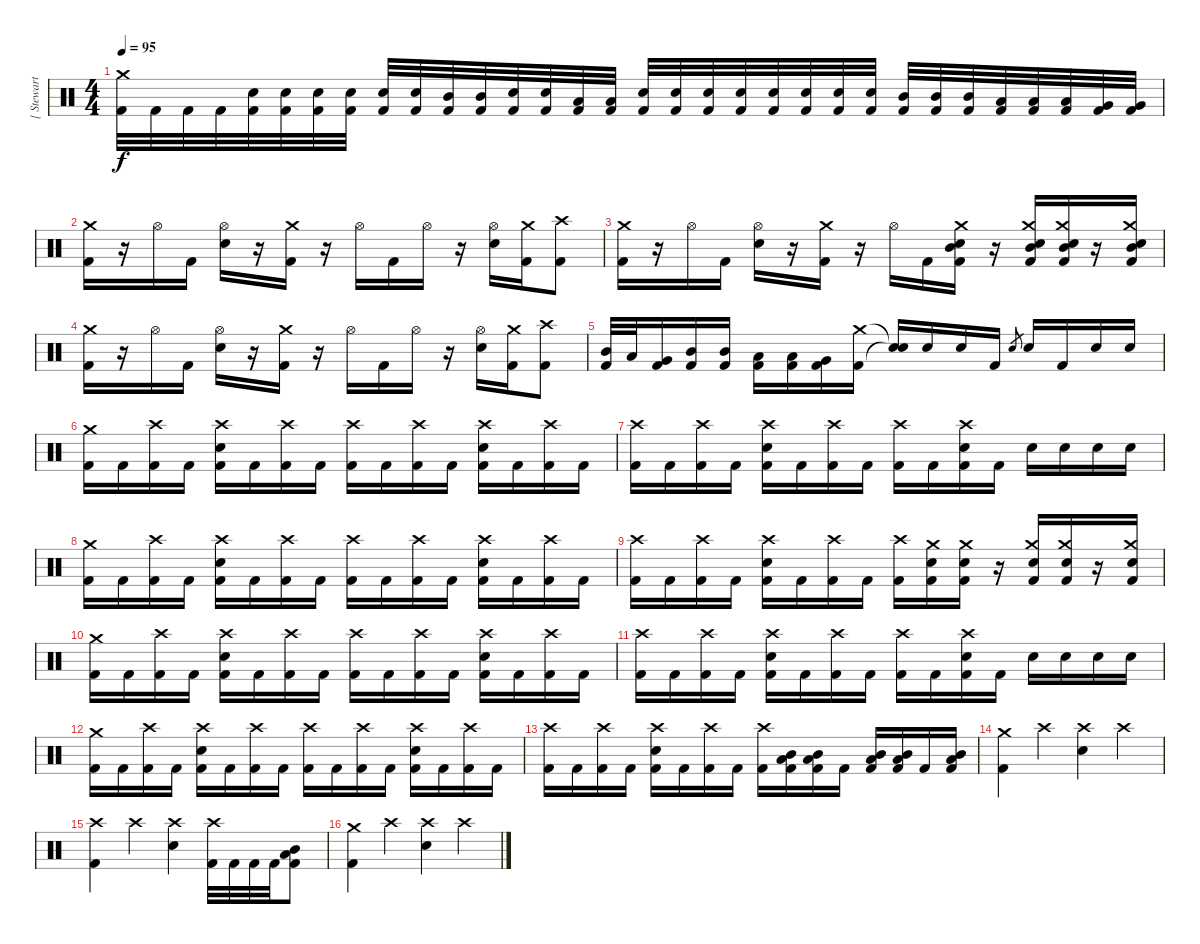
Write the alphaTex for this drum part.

\track ("[ Stewart ] " "[ Stewart ") {instrument percussion}
\staff {score}
\articulation defaults
\ts (4 4)
\tempo 95
\clef neutral
\ks c
("Kick (hit) 2" "Crash medium (hit)").32{dy f} "Kick (hit) 2".32 "Kick (hit) 2".32 "Kick (hit) 2".32 ("Electric Snare (hit)" "Kick (hit) 2").32 ("Electric Snare (hit)" "Kick (hit) 2").32 ("Electric Snare (hit)" "Kick (hit) 2").32 ("Electric Snare (hit)" "Kick (hit) 2").32 ("Electric Snare (hit)" "Kick (hit) 2").32 ("Electric Snare (hit)" "Kick (hit) 2").32 ("Mid Tom (hit)" "Kick (hit) 2").32 ("Mid Tom (hit)" "Kick (hit) 2").32 ("Electric Snare (hit)" "Kick (hit) 2").32 ("Electric Snare (hit)" "Kick (hit) 2").32 ("Low Tom (hit)" "Kick (hit) 2").32 ("Low Tom (hit)" "Kick (hit) 2").32 ("Electric Snare (hit)" "Kick (hit) 2").32 ("Electric Snare (hit)" "Kick (hit) 2").32 ("Electric Snare (hit)" "Kick (hit) 2").32 ("Electric Snare (hit)" "Kick (hit) 2").32 ("Electric Snare (hit)" "Kick (hit) 2").32 ("Electric Snare (hit)" "Kick (hit) 2").32 ("Electric Snare (hit)" "Kick (hit) 2").32 ("Electric Snare (hit)" "Kick (hit) 2").32 ("Mid Tom (hit)" "Kick (hit) 2").32 ("Mid Tom (hit)" "Kick (hit) 2").32 ("Mid Tom (hit)" "Kick (hit) 2").32 ("Low Tom (hit)" "Kick (hit) 2").32 ("Low Tom (hit)" "Kick (hit) 2").32 ("Low Tom (hit)" "Kick (hit) 2").32 ("Very Low Tom (hit)" "Kick (hit) 2").32 ("Very Low Tom (hit)" "Kick (hit) 2").32 |
("Kick (hit) 2" "Crash medium (hit)").16 r.16 "Hi-Hat (open)".16 "Kick (hit) 2".16 ("Electric Snare (hit)" "Hi-Hat (open)").16 r.16 ("Kick (hit) 2" "Crash medium (hit)").16 r.16 "Hi-Hat (open)".16 "Kick (hit) 2".16 "Hi-Hat (open)".16 r.16 ("Electric Snare (hit)" "Hi-Hat (open)").16 ("Kick (hit) 2" "Crash medium (hit)").16 ("Kick (hit) 2" "Crash high (hit)").8 |
("Kick (hit) 2" "Crash medium (hit)").16 r.16 "Hi-Hat (open)".16 "Kick (hit) 2".16 ("Electric Snare (hit)" "Hi-Hat (open)").16 r.16 ("Kick (hit) 2" "Crash medium (hit)").16 r.16 "Hi-Hat (open)".16 "Kick (hit) 2".16 ("Electric Snare (hit)" "Mid Tom (hit)" "Kick (hit) 2" "Crash medium (hit)").16 r.16 ("Electric Snare (hit)" "Mid Tom (hit)" "Kick (hit) 2" "Crash medium (hit)").16 ("Electric Snare (hit)" "Mid Tom (hit)" "Kick (hit) 2" "Crash medium (hit)").16 r.16 ("Electric Snare (hit)" "Mid Tom (hit)" "Kick (hit) 2" "Crash medium (hit)").16 |
("Kick (hit) 2" "Crash medium (hit)").16 r.16 "Hi-Hat (open)".16 "Kick (hit) 2".16 ("Electric Snare (hit)" "Hi-Hat (open)").16 r.16 ("Kick (hit) 2" "Crash medium (hit)").16 r.16 "Hi-Hat (open)".16 "Kick (hit) 2".16 "Hi-Hat (open)".16 r.16 ("Electric Snare (hit)" "Hi-Hat (open)").16 ("Kick (hit) 2" "Crash medium (hit)").16 ("Kick (hit) 2" "Crash high (hit)").8 |
("Mid Tom (hit)" "Kick (hit) 2").32 "Low Tom (hit)".32 ("Very Low Tom (hit)" "Kick (hit) 2").16 ("Mid Tom (hit)" "Kick (hit) 2").16 ("Mid Tom (hit)" "Kick (hit) 2").16 ("Low Tom (hit)" "Kick (hit) 2").16 ("Low Tom (hit)" "Kick (hit) 2").16 ("Very Low Tom (hit)" "Kick (hit) 2").16 ("Kick (hit) 2" "Crash medium (hit)").16 ("Snare (hit)"{t} "Snare (hit)"{t}).16 "Electric Snare (hit)".16 "Electric Snare (hit)".16 "Kick (hit) 2".16 "Electric Snare (hit)".8{gr} "Electric Snare (hit)".16 "Kick (hit) 2".16 "Electric Snare (hit)".16 "Electric Snare (hit)".16 |
("Kick (hit) 2" "Crash medium (hit)").16 "Kick (hit) 2".16 ("Kick (hit) 2" "Crash high (hit)").16 "Kick (hit) 2".16 ("Kick (hit) 2" "Electric Snare (hit)" "Crash high (hit)").16 "Kick (hit) 2".16 ("Kick (hit) 2" "Crash high (hit)").16 "Kick (hit) 2".16 ("Kick (hit) 2" "Crash high (hit)").16 "Kick (hit) 2".16 ("Kick (hit) 2" "Crash high (hit)").16 "Kick (hit) 2".16 ("Kick (hit) 2" "Electric Snare (hit)" "Crash high (hit)").16 "Kick (hit) 2".16 ("Kick (hit) 2" "Crash high (hit)").16 "Kick (hit) 2".16 |
("Kick (hit) 2" "Crash high (hit)").16 "Kick (hit) 2".16 ("Kick (hit) 2" "Crash high (hit)").16 "Kick (hit) 2".16 ("Kick (hit) 2" "Electric Snare (hit)" "Crash high (hit)").16 "Kick (hit) 2".16 ("Kick (hit) 2" "Crash high (hit)").16 "Kick (hit) 2".16 ("Kick (hit) 2" "Crash high (hit)").16 "Kick (hit) 2".16 ("Kick (hit) 2" "Electric Snare (hit)" "Crash high (hit)").16 "Kick (hit) 2".16 "Electric Snare (hit)".16 "Electric Snare (hit)".16 "Electric Snare (hit)".16 "Electric Snare (hit)".16 |
("Kick (hit) 2" "Crash medium (hit)").16 "Kick (hit) 2".16 ("Kick (hit) 2" "Crash high (hit)").16 "Kick (hit) 2".16 ("Kick (hit) 2" "Electric Snare (hit)" "Crash high (hit)").16 "Kick (hit) 2".16 ("Kick (hit) 2" "Crash high (hit)").16 "Kick (hit) 2".16 ("Kick (hit) 2" "Crash high (hit)").16 "Kick (hit) 2".16 ("Kick (hit) 2" "Crash high (hit)").16 "Kick (hit) 2".16 ("Kick (hit) 2" "Electric Snare (hit)" "Crash high (hit)").16 "Kick (hit) 2".16 ("Kick (hit) 2" "Crash high (hit)").16 "Kick (hit) 2".16 |
("Kick (hit) 2" "Crash high (hit)").16 "Kick (hit) 2".16 ("Kick (hit) 2" "Crash high (hit)").16 "Kick (hit) 2".16 ("Kick (hit) 2" "Electric Snare (hit)" "Crash high (hit)").16 "Kick (hit) 2".16 ("Kick (hit) 2" "Crash high (hit)").16 "Kick (hit) 2".16 ("Kick (hit) 2" "Crash high (hit)").16 ("Kick (hit) 2" "Electric Snare (hit)" "Crash medium (hit)").16 ("Kick (hit) 2" "Electric Snare (hit)" "Crash medium (hit)").16 r.16 ("Kick (hit) 2" "Electric Snare (hit)" "Crash medium (hit)").16 ("Kick (hit) 2" "Electric Snare (hit)" "Crash medium (hit)").16 r.16 ("Kick (hit) 2" "Electric Snare (hit)" "Crash medium (hit)").16 |
("Kick (hit) 2" "Crash medium (hit)").16 "Kick (hit) 2".16 ("Kick (hit) 2" "Crash high (hit)").16 "Kick (hit) 2".16 ("Kick (hit) 2" "Electric Snare (hit)" "Crash high (hit)").16 "Kick (hit) 2".16 ("Kick (hit) 2" "Crash high (hit)").16 "Kick (hit) 2".16 ("Kick (hit) 2" "Crash high (hit)").16 "Kick (hit) 2".16 ("Kick (hit) 2" "Crash high (hit)").16 "Kick (hit) 2".16 ("Kick (hit) 2" "Electric Snare (hit)" "Crash high (hit)").16 "Kick (hit) 2".16 ("Kick (hit) 2" "Crash high (hit)").16 "Kick (hit) 2".16 |
("Kick (hit) 2" "Crash high (hit)").16 "Kick (hit) 2".16 ("Kick (hit) 2" "Crash high (hit)").16 "Kick (hit) 2".16 ("Kick (hit) 2" "Electric Snare (hit)" "Crash high (hit)").16 "Kick (hit) 2".16 ("Kick (hit) 2" "Crash high (hit)").16 "Kick (hit) 2".16 ("Kick (hit) 2" "Crash high (hit)").16 "Kick (hit) 2".16 ("Kick (hit) 2" "Electric Snare (hit)" "Crash high (hit)").16 "Kick (hit) 2".16 "Electric Snare (hit)".16 "Electric Snare (hit)".16 "Electric Snare (hit)".16 "Electric Snare (hit)".16 |
("Kick (hit) 2" "Crash medium (hit)").16 "Kick (hit) 2".16 ("Kick (hit) 2" "Crash high (hit)").16 "Kick (hit) 2".16 ("Kick (hit) 2" "Electric Snare (hit)" "Crash high (hit)").16 "Kick (hit) 2".16 ("Kick (hit) 2" "Crash high (hit)").16 "Kick (hit) 2".16 ("Kick (hit) 2" "Crash high (hit)").16 "Kick (hit) 2".16 ("Kick (hit) 2" "Crash high (hit)").16 "Kick (hit) 2".16 ("Kick (hit) 2" "Electric Snare (hit)" "Crash high (hit)").16 "Kick (hit) 2".16 ("Kick (hit) 2" "Crash high (hit)").16 "Kick (hit) 2".16 |
("Kick (hit) 2" "Crash high (hit)").16 "Kick (hit) 2".16 ("Kick (hit) 2" "Crash high (hit)").16 "Kick (hit) 2".16 ("Kick (hit) 2" "Electric Snare (hit)" "Crash high (hit)").16 "Kick (hit) 2".16 ("Kick (hit) 2" "Crash high (hit)").16 "Kick (hit) 2".16 ("Kick (hit) 2" "Crash high (hit)").16 ("Kick (hit) 2" "Mid Tom (hit)" "Low Tom (hit)").16 ("Kick (hit) 2" "Mid Tom (hit)" "Low Tom (hit)").16 "Kick (hit) 2".16 ("Kick (hit) 2" "Mid Tom (hit)" "Low Tom (hit)").16 ("Kick (hit) 2" "Mid Tom (hit)" "Low Tom (hit)").16 "Kick (hit) 2".16 ("Kick (hit) 2" "Mid Tom (hit)" "Low Tom (hit)").16 |
("Kick (hit) 2" "Crash medium (hit)").4 "Crash high (hit)".4 ("Electric Snare (hit)" "Crash high (hit)").4 "Crash high (hit)".4 |
("Kick (hit) 2" "Crash high (hit)").4 "Crash high (hit)".4 ("Electric Snare (hit)" "Crash high (hit)").4 ("Kick (hit) 2" "Crash high (hit)").32 "Kick (hit) 2".32 "Kick (hit) 2".32 "Kick (hit) 2".32 ("Low Tom (hit)" "Mid Tom (hit)" "Kick (hit) 2").8 |
("Kick (hit) 2" "Crash medium (hit)").4 "Crash high (hit)".4 ("Electric Snare (hit)" "Crash high (hit)").4 "Crash high (hit)".4
